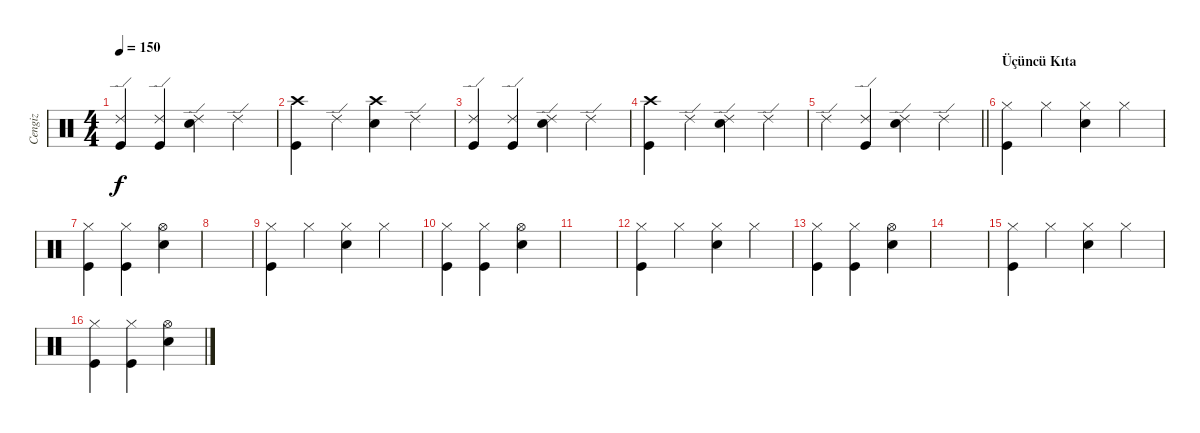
\track ("Cengiz" "Cengiz") {instrument percussion}
\staff {score}
\articulation defaults
\ts (4 4)
\tempo 150
\clef neutral
\ks c
("Ride (edge) 2" "Kick (hit)").4{dy f} ("Ride (edge) 2" "Kick (hit)").4 ("Ride (edge) 2" "Snare (hit) 2").4 "Ride (edge) 2".4 |
("Crash high (hit)" "Kick (hit)").4 "Ride (edge) 2".4 ("Crash high (hit)" "Snare (hit) 2").4 "Ride (edge) 2".4 |
("Ride (edge) 2" "Kick (hit)").4 ("Ride (edge) 2" "Kick (hit)").4 ("Ride (edge) 2" "Snare (hit) 2").4 "Ride (edge) 2".4 |
("Crash high (hit)" "Kick (hit)").4 "Ride (edge) 2".4 ("Ride (edge) 2" "Snare (hit) 2").4 "Ride (edge) 2".4 |
\barLineRight lightlight "Ride (edge) 2".4
("Ride (edge) 2" "Kick (hit)").4 ("Ride (edge) 2" "Snare (hit) 2").4 "Ride (edge) 2".4 |
\section ("" "Üçüncü Kıta")
("Hi-Hat (closed)" "Kick (hit)").4 "Hi-Hat (closed)".4 ("Hi-Hat (closed)" "Snare (hit) 2").4 "Hi-Hat (closed)".4 |
("Hi-Hat (closed)" "Kick (hit)").4 ("Hi-Hat (closed)" "Kick (hit)").4 ("Hi-Hat (open)" "Snare (hit) 2").4 |
|
("Hi-Hat (closed)" "Kick (hit)").4 "Hi-Hat (closed)".4 ("Hi-Hat (closed)" "Snare (hit) 2").4 "Hi-Hat (closed)".4 |
("Hi-Hat (closed)" "Kick (hit)").4 ("Hi-Hat (closed)" "Kick (hit)").4 ("Hi-Hat (open)" "Snare (hit) 2").4 |
|
("Hi-Hat (closed)" "Kick (hit)").4 "Hi-Hat (closed)".4 ("Hi-Hat (closed)" "Snare (hit) 2").4 "Hi-Hat (closed)".4 |
("Hi-Hat (closed)" "Kick (hit)").4 ("Hi-Hat (closed)" "Kick (hit)").4 ("Hi-Hat (open)" "Snare (hit) 2").4 |
|
("Hi-Hat (closed)" "Kick (hit)").4 "Hi-Hat (closed)".4 ("Hi-Hat (closed)" "Snare (hit) 2").4 "Hi-Hat (closed)".4 |
("Hi-Hat (closed)" "Kick (hit)").4 ("Hi-Hat (closed)" "Kick (hit)").4 ("Hi-Hat (open)" "Snare (hit) 2").4
